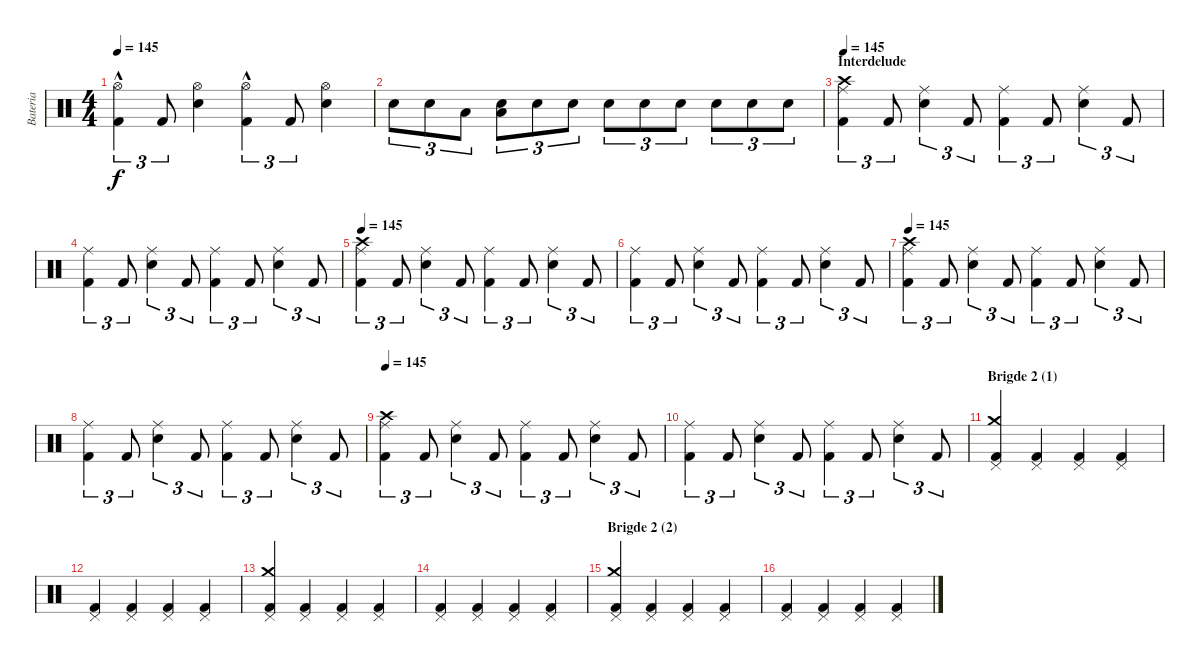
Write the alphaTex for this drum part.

\track ("Bateria" "Bateria") {instrument percussion}
\staff {score}
\articulation defaults
\ts (4 4)
\tempo 145
\clef neutral
\ks c
("Hi-Hat (open)"{hac} "Kick (hit) 2").4{tu (3 2) dy f} "Kick (hit) 2".8{tu (3 2)} ("Hi-Hat (open)" "Snare (hit) 2").4 ("Hi-Hat (open)"{hac} "Kick (hit) 2").4{tu (3 2)} "Kick (hit) 2".8{tu (3 2)} ("Hi-Hat (open)" "Snare (hit) 2").4 |
"Snare (hit) 2".8{tu (3 2)} "Snare (hit) 2".8{tu (3 2)} "Low Tom (hit)".8{tu (3 2)} ("Snare (hit) 2" "Low Tom (hit)").8{tu (3 2)} "Snare (hit) 2".8{tu (3 2)} "Snare (hit) 2".8{tu (3 2)} "Snare (hit) 2".8{tu (3 2)} "Snare (hit) 2".8{tu (3 2)} "Snare (hit) 2".8{tu (3 2)} "Snare (hit) 2".8{tu (3 2)} "Snare (hit) 2".8{tu (3 2)} "Snare (hit) 2".8{tu (3 2)} |
\section ("" "Interdelude")
\tempo 145
("Crash high (hit)" "Ride (middle)" "Kick (hit) 2").4{tu (3 2)} "Kick (hit) 2".8{tu (3 2)} ("Ride (middle)" "Snare (hit) 2").4{tu (3 2)} "Kick (hit) 2".8{tu (3 2)} ("Ride (middle)" "Kick (hit) 2").4{tu (3 2)} "Kick (hit) 2".8{tu (3 2)} ("Ride (middle)" "Snare (hit) 2").4{tu (3 2)} "Kick (hit) 2".8{tu (3 2)} |
("Ride (middle)" "Kick (hit) 2").4{tu (3 2)} "Kick (hit) 2".8{tu (3 2)} ("Ride (middle)" "Snare (hit) 2").4{tu (3 2)} "Kick (hit) 2".8{tu (3 2)} ("Ride (middle)" "Kick (hit) 2").4{tu (3 2)} "Kick (hit) 2".8{tu (3 2)} ("Ride (middle)" "Snare (hit) 2").4{tu (3 2)} "Kick (hit) 2".8{tu (3 2)} |
\tempo 145
("Crash high (hit)" "Ride (middle)" "Kick (hit) 2").4{tu (3 2)} "Kick (hit) 2".8{tu (3 2)} ("Ride (middle)" "Snare (hit) 2").4{tu (3 2)} "Kick (hit) 2".8{tu (3 2)} ("Ride (middle)" "Kick (hit) 2").4{tu (3 2)} "Kick (hit) 2".8{tu (3 2)} ("Ride (middle)" "Snare (hit) 2").4{tu (3 2)} "Kick (hit) 2".8{tu (3 2)} |
("Ride (middle)" "Kick (hit) 2").4{tu (3 2)} "Kick (hit) 2".8{tu (3 2)} ("Ride (middle)" "Snare (hit) 2").4{tu (3 2)} "Kick (hit) 2".8{tu (3 2)} ("Ride (middle)" "Kick (hit) 2").4{tu (3 2)} "Kick (hit) 2".8{tu (3 2)} ("Ride (middle)" "Snare (hit) 2").4{tu (3 2)} "Kick (hit) 2".8{tu (3 2)} |
\tempo 145
("Crash high (hit)" "Ride (middle)" "Kick (hit) 2").4{tu (3 2)} "Kick (hit) 2".8{tu (3 2)} ("Ride (middle)" "Snare (hit) 2").4{tu (3 2)} "Kick (hit) 2".8{tu (3 2)} ("Ride (middle)" "Kick (hit) 2").4{tu (3 2)} "Kick (hit) 2".8{tu (3 2)} ("Ride (middle)" "Snare (hit) 2").4{tu (3 2)} "Kick (hit) 2".8{tu (3 2)} |
("Ride (middle)" "Kick (hit) 2").4{tu (3 2)} "Kick (hit) 2".8{tu (3 2)} ("Ride (middle)" "Snare (hit) 2").4{tu (3 2)} "Kick (hit) 2".8{tu (3 2)} ("Ride (middle)" "Kick (hit) 2").4{tu (3 2)} "Kick (hit) 2".8{tu (3 2)} ("Ride (middle)" "Snare (hit) 2").4{tu (3 2)} "Kick (hit) 2".8{tu (3 2)} |
\tempo 145
("Crash high (hit)" "Ride (middle)" "Kick (hit) 2").4{tu (3 2)} "Kick (hit) 2".8{tu (3 2)} ("Ride (middle)" "Snare (hit) 2").4{tu (3 2)} "Kick (hit) 2".8{tu (3 2)} ("Ride (middle)" "Kick (hit) 2").4{tu (3 2)} "Kick (hit) 2".8{tu (3 2)} ("Ride (middle)" "Snare (hit) 2").4{tu (3 2)} "Kick (hit) 2".8{tu (3 2)} |
("Ride (middle)" "Kick (hit) 2").4{tu (3 2)} "Kick (hit) 2".8{tu (3 2)} ("Ride (middle)" "Snare (hit) 2").4{tu (3 2)} "Kick (hit) 2".8{tu (3 2)} ("Ride (middle)" "Kick (hit) 2").4{tu (3 2)} "Kick (hit) 2".8{tu (3 2)} ("Ride (middle)" "Snare (hit) 2").4{tu (3 2)} "Kick (hit) 2".8{tu (3 2)} |
\section ("" "Brigde 2 (1)")
("Crash medium (hit)" "Kick (hit) 2" "Pedal Hi-Hat (hit)").4 ("Kick (hit) 2" "Pedal Hi-Hat (hit)").4 ("Kick (hit) 2" "Pedal Hi-Hat (hit)").4 ("Kick (hit) 2" "Pedal Hi-Hat (hit)").4 |
("Kick (hit) 2" "Pedal Hi-Hat (hit)").4 ("Kick (hit) 2" "Pedal Hi-Hat (hit)").4 ("Kick (hit) 2" "Pedal Hi-Hat (hit)").4 ("Kick (hit) 2" "Pedal Hi-Hat (hit)").4 |
("Crash medium (hit)" "Kick (hit) 2" "Pedal Hi-Hat (hit)").4 ("Kick (hit) 2" "Pedal Hi-Hat (hit)").4 ("Kick (hit) 2" "Pedal Hi-Hat (hit)").4 ("Kick (hit) 2" "Pedal Hi-Hat (hit)").4 |
("Kick (hit) 2" "Pedal Hi-Hat (hit)").4 ("Kick (hit) 2" "Pedal Hi-Hat (hit)").4 ("Kick (hit) 2" "Pedal Hi-Hat (hit)").4 ("Kick (hit) 2" "Pedal Hi-Hat (hit)").4 |
\section ("" "Brigde 2 (2)")
("Crash medium (hit)" "Kick (hit) 2" "Pedal Hi-Hat (hit)").4 ("Kick (hit) 2" "Pedal Hi-Hat (hit)").4 ("Kick (hit) 2" "Pedal Hi-Hat (hit)").4 ("Kick (hit) 2" "Pedal Hi-Hat (hit)").4 |
("Kick (hit) 2" "Pedal Hi-Hat (hit)").4 ("Kick (hit) 2" "Pedal Hi-Hat (hit)").4 ("Kick (hit) 2" "Pedal Hi-Hat (hit)").4 ("Kick (hit) 2" "Pedal Hi-Hat (hit)").4
